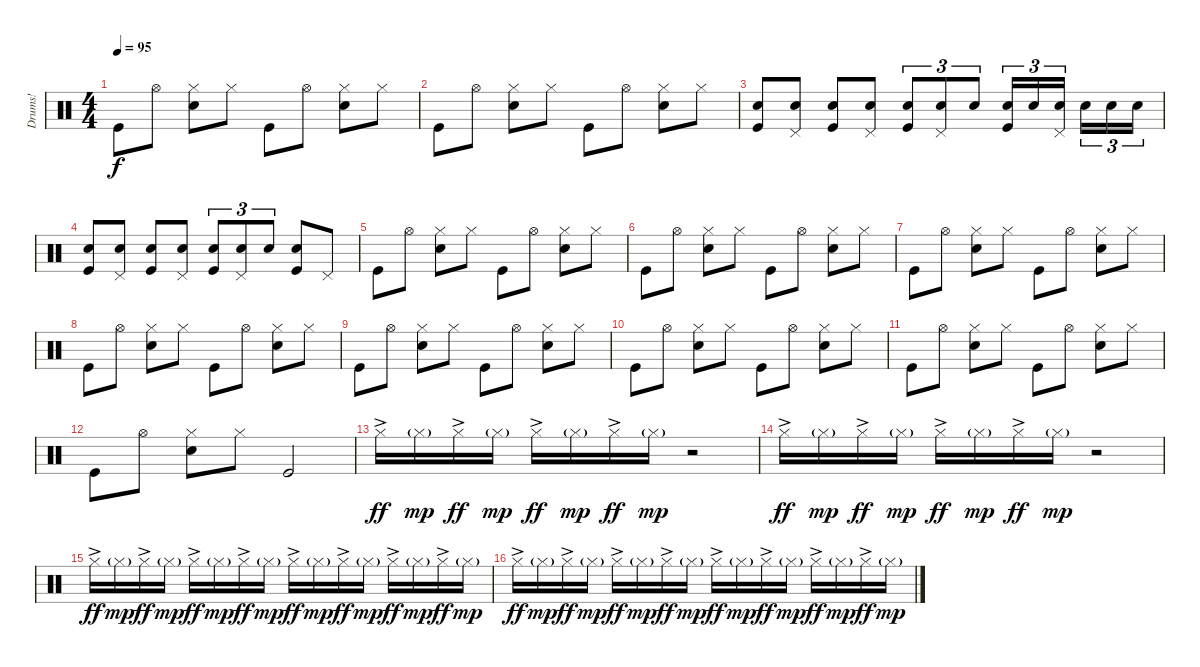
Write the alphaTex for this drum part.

\track ("Drums!" "Drums!") {instrument percussion}
\staff {score}
\articulation defaults
\ts (4 4)
\tempo 95
\clef neutral
\ks c "Kick (hit)".8{dy f} "Hi-Hat (open)".8
("Hi-Hat (closed)" "Electric Snare (hit)").8 "Hi-Hat (closed)".8 "Kick (hit)".8 "Hi-Hat (open)".8 ("Hi-Hat (closed)" "Electric Snare (hit)").8 "Hi-Hat (closed)".8 |
"Kick (hit)".8 "Hi-Hat (open)".8 ("Hi-Hat (closed)" "Electric Snare (hit)").8 "Hi-Hat (closed)".8 "Kick (hit)".8 "Hi-Hat (open)".8 ("Hi-Hat (closed)" "Electric Snare (hit)").8 "Hi-Hat (closed)".8 |
("Electric Snare (hit)" "Kick (hit)").8 ("Pedal Hi-Hat (hit)" "Electric Snare (hit)").8 ("Electric Snare (hit)" "Kick (hit)").8 ("Pedal Hi-Hat (hit)" "Electric Snare (hit)").8 ("Electric Snare (hit)" "Kick (hit)").8{tu (3 2)} ("Pedal Hi-Hat (hit)" "Electric Snare (hit)").8{tu (3 2)} "Electric Snare (hit)".8{tu (3 2)} ("Electric Snare (hit)" "Kick (hit)").16{tu (3 2)} "Electric Snare (hit)".16{tu (3 2)} ("Pedal Hi-Hat (hit)" "Electric Snare (hit)").16{tu (3 2) beam splitsecondary} "Electric Snare (hit)".16{tu (3 2)} "Electric Snare (hit)".16{tu (3 2)} "Electric Snare (hit)".16{tu (3 2)} |
("Electric Snare (hit)" "Kick (hit)").8 ("Pedal Hi-Hat (hit)" "Electric Snare (hit)").8 ("Electric Snare (hit)" "Kick (hit)").8 ("Pedal Hi-Hat (hit)" "Electric Snare (hit)").8 ("Electric Snare (hit)" "Kick (hit)").8{tu (3 2)} ("Pedal Hi-Hat (hit)" "Electric Snare (hit)").8{tu (3 2)} "Electric Snare (hit)".8{tu (3 2)} ("Electric Snare (hit)" "Kick (hit)").8 "Pedal Hi-Hat (hit)".8 |
"Kick (hit)".8 "Hi-Hat (open)".8 ("Hi-Hat (closed)" "Electric Snare (hit)").8 "Hi-Hat (closed)".8 "Kick (hit)".8 "Hi-Hat (open)".8 ("Hi-Hat (closed)" "Electric Snare (hit)").8 "Hi-Hat (closed)".8 |
"Kick (hit)".8 "Hi-Hat (open)".8 ("Hi-Hat (closed)" "Electric Snare (hit)").8 "Hi-Hat (closed)".8 "Kick (hit)".8 "Hi-Hat (open)".8 ("Hi-Hat (closed)" "Electric Snare (hit)").8 "Hi-Hat (closed)".8 |
"Kick (hit)".8 "Hi-Hat (open)".8 ("Hi-Hat (closed)" "Electric Snare (hit)").8 "Hi-Hat (closed)".8 "Kick (hit)".8 "Hi-Hat (open)".8 ("Hi-Hat (closed)" "Electric Snare (hit)").8 "Hi-Hat (closed)".8 |
"Kick (hit)".8 "Hi-Hat (open)".8 ("Hi-Hat (closed)" "Electric Snare (hit)").8 "Hi-Hat (closed)".8 "Kick (hit)".8 "Hi-Hat (open)".8 ("Hi-Hat (closed)" "Electric Snare (hit)").8 "Hi-Hat (closed)".8 |
"Kick (hit)".8 "Hi-Hat (open)".8 ("Hi-Hat (closed)" "Electric Snare (hit)").8 "Hi-Hat (closed)".8 "Kick (hit)".8 "Hi-Hat (open)".8 ("Hi-Hat (closed)" "Electric Snare (hit)").8 "Hi-Hat (closed)".8 |
"Kick (hit)".8 "Hi-Hat (open)".8 ("Hi-Hat (closed)" "Electric Snare (hit)").8 "Hi-Hat (closed)".8 "Kick (hit)".8 "Hi-Hat (open)".8 ("Hi-Hat (closed)" "Electric Snare (hit)").8 "Hi-Hat (closed)".8 |
"Kick (hit)".8 "Hi-Hat (open)".8 ("Hi-Hat (closed)" "Electric Snare (hit)").8 "Hi-Hat (closed)".8 "Kick (hit)".8 "Hi-Hat (open)".8 ("Hi-Hat (closed)" "Electric Snare (hit)").8 "Hi-Hat (closed)".8 |
"Kick (hit)".8 "Hi-Hat (open)".8 ("Hi-Hat (closed)" "Electric Snare (hit)").8 "Hi-Hat (closed)".8 "Kick (hit)".2 |
"Hi-Hat (closed)"{ac}.16{dy ff} "Hi-Hat (closed)"{g}.16{dy mp} "Hi-Hat (closed)"{ac}.16{dy ff} "Hi-Hat (closed)"{g}.16{dy mp} "Hi-Hat (closed)"{ac}.16{dy ff} "Hi-Hat (closed)"{g}.16{dy mp} "Hi-Hat (closed)"{ac}.16{dy ff} "Hi-Hat (closed)"{g}.16{dy mp} r.2 |
"Hi-Hat (closed)"{ac}.16{dy ff} "Hi-Hat (closed)"{g}.16{dy mp} "Hi-Hat (closed)"{ac}.16{dy ff} "Hi-Hat (closed)"{g}.16{dy mp} "Hi-Hat (closed)"{ac}.16{dy ff} "Hi-Hat (closed)"{g}.16{dy mp} "Hi-Hat (closed)"{ac}.16{dy ff} "Hi-Hat (closed)"{g}.16{dy mp} r.2 |
"Hi-Hat (closed)"{ac}.16{dy ff} "Hi-Hat (closed)"{g}.16{dy mp} "Hi-Hat (closed)"{ac}.16{dy ff} "Hi-Hat (closed)"{g}.16{dy mp} "Hi-Hat (closed)"{ac}.16{dy ff} "Hi-Hat (closed)"{g}.16{dy mp} "Hi-Hat (closed)"{ac}.16{dy ff} "Hi-Hat (closed)"{g}.16{dy mp} "Hi-Hat (closed)"{ac}.16{dy ff} "Hi-Hat (closed)"{g}.16{dy mp} "Hi-Hat (closed)"{ac}.16{dy ff} "Hi-Hat (closed)"{g}.16{dy mp} "Hi-Hat (closed)"{ac}.16{dy ff} "Hi-Hat (closed)"{g}.16{dy mp} "Hi-Hat (closed)"{ac}.16{dy ff} "Hi-Hat (closed)"{g}.16{dy mp} |
"Hi-Hat (closed)"{ac}.16{dy ff} "Hi-Hat (closed)"{g}.16{dy mp} "Hi-Hat (closed)"{ac}.16{dy ff} "Hi-Hat (closed)"{g}.16{dy mp} "Hi-Hat (closed)"{ac}.16{dy ff} "Hi-Hat (closed)"{g}.16{dy mp} "Hi-Hat (closed)"{ac}.16{dy ff} "Hi-Hat (closed)"{g}.16{dy mp} "Hi-Hat (closed)"{ac}.16{dy ff} "Hi-Hat (closed)"{g}.16{dy mp} "Hi-Hat (closed)"{ac}.16{dy ff} "Hi-Hat (closed)"{g}.16{dy mp} "Hi-Hat (closed)"{ac}.16{dy ff} "Hi-Hat (closed)"{g}.16{dy mp} "Hi-Hat (closed)"{ac}.16{dy ff} "Hi-Hat (closed)"{g}.16{dy mp}
